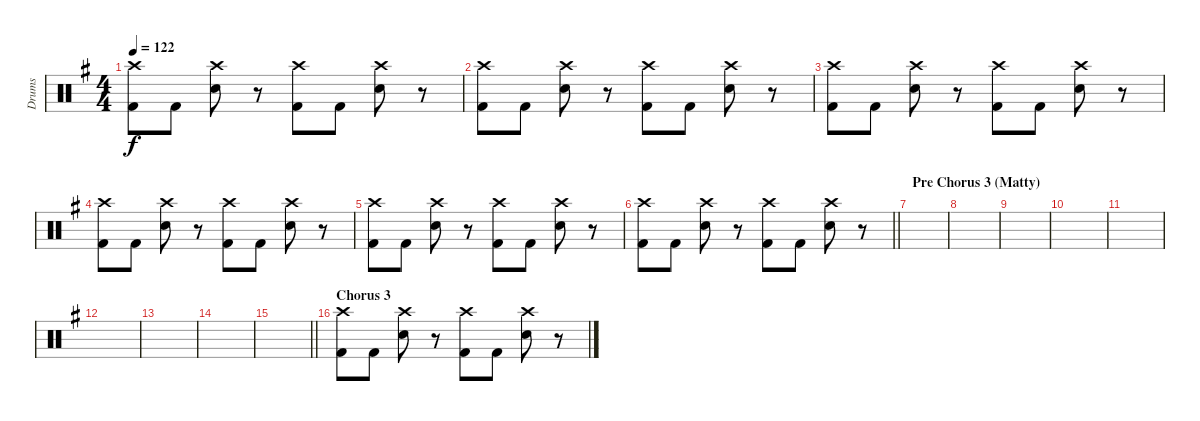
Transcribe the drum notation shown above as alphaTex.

\track ("Drums" "Drums") {instrument percussion bank 127}
\staff {score}
\articulation defaults
\ts (4 4)
\tempo 122
\clef neutral
\ks eminor
("Crash high (hit)" "Kick (hit) 2").8{dy f} "Kick (hit) 2".8 ("Crash high (hit)" "Snare (hit) 2").8 r.8 ("Crash high (hit)" "Kick (hit) 2").8 "Kick (hit) 2".8 ("Crash high (hit)" "Snare (hit) 2").8 r.8 |
("Crash high (hit)" "Kick (hit) 2").8 "Kick (hit) 2".8 ("Crash high (hit)" "Snare (hit) 2").8 r.8 ("Crash high (hit)" "Kick (hit) 2").8 "Kick (hit) 2".8 ("Crash high (hit)" "Snare (hit) 2").8 r.8 |
("Crash high (hit)" "Kick (hit) 2").8 "Kick (hit) 2".8 ("Crash high (hit)" "Snare (hit) 2").8 r.8 ("Crash high (hit)" "Kick (hit) 2").8 "Kick (hit) 2".8 ("Crash high (hit)" "Snare (hit) 2").8 r.8 |
("Crash high (hit)" "Kick (hit) 2").8 "Kick (hit) 2".8 ("Crash high (hit)" "Snare (hit) 2").8 r.8 ("Crash high (hit)" "Kick (hit) 2").8 "Kick (hit) 2".8 ("Crash high (hit)" "Snare (hit) 2").8 r.8 |
("Crash high (hit)" "Kick (hit) 2").8 "Kick (hit) 2".8 ("Crash high (hit)" "Snare (hit) 2").8 r.8 ("Crash high (hit)" "Kick (hit) 2").8 "Kick (hit) 2".8 ("Crash high (hit)" "Snare (hit) 2").8 r.8 |
\barLineRight lightlight
("Crash high (hit)" "Kick (hit) 2").8 "Kick (hit) 2".8 ("Crash high (hit)" "Snare (hit) 2").8 r.8 ("Crash high (hit)" "Kick (hit) 2").8 "Kick (hit) 2".8 ("Crash high (hit)" "Snare (hit) 2").8 r.8 |
\section ("" "Pre Chorus 3 (Matty)")
|
|
|
|
|
|
|
|
\barLineRight lightlight
|
\section ("" "Chorus 3")
("Crash high (hit)" "Kick (hit) 2").8 "Kick (hit) 2".8 ("Crash high (hit)" "Snare (hit) 2").8 r.8 ("Crash high (hit)" "Kick (hit) 2").8 "Kick (hit) 2".8 ("Crash high (hit)" "Snare (hit) 2").8 r.8
